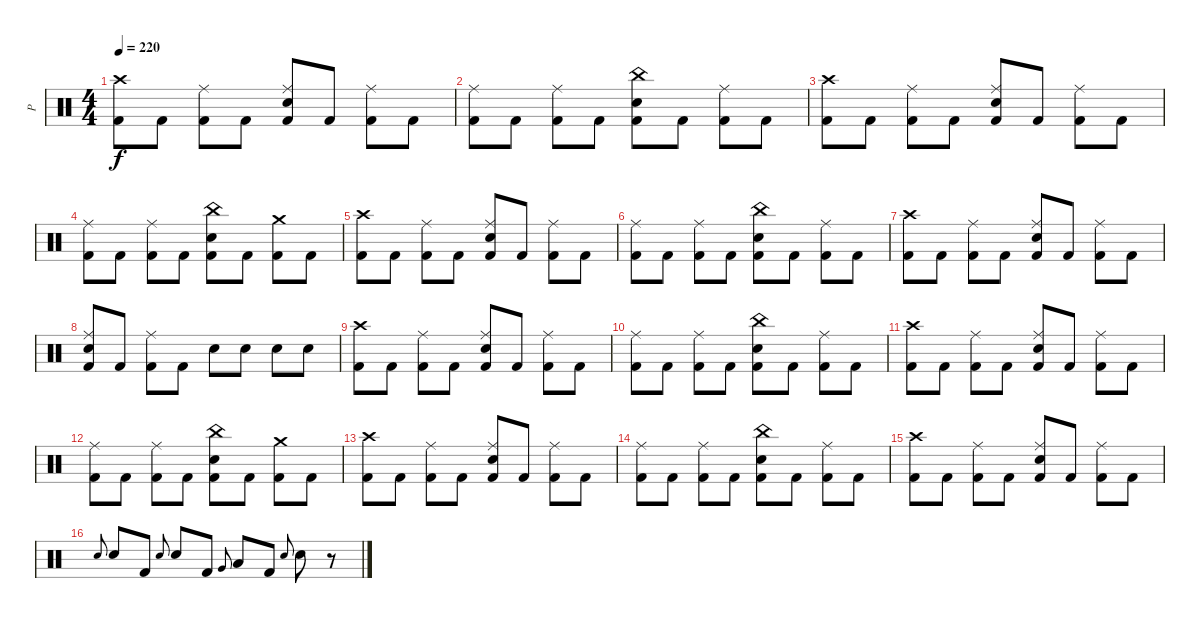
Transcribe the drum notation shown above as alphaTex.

\track ("P" "P") {instrument percussion}
\staff {score}
\articulation defaults
\ts (4 4)
\tempo 220
\clef neutral
\ks c
("Crash high (hit)" "Kick (hit) 2").8{dy f} "Kick (hit) 2".8 ("Ride (middle)" "Kick (hit) 2").8 "Kick (hit) 2".8 ("Ride (middle)" "Electric Snare (hit)" "Kick (hit) 2").8 "Kick (hit) 2".8 ("Ride (middle)" "Kick (hit) 2").8 "Kick (hit) 2".8 |
("Ride (middle)" "Kick (hit) 2").8 "Kick (hit) 2".8 ("Ride (middle)" "Kick (hit) 2").8 "Kick (hit) 2".8 ("China (hit)" "Electric Snare (hit)" "Kick (hit) 2").8 "Kick (hit) 2".8 ("Ride (middle)" "Kick (hit) 2").8 "Kick (hit) 2".8 |
("Crash high (hit)" "Kick (hit) 2").8 "Kick (hit) 2".8 ("Ride (middle)" "Kick (hit) 2").8 "Kick (hit) 2".8 ("Ride (middle)" "Electric Snare (hit)" "Kick (hit) 2").8 "Kick (hit) 2".8 ("Ride (middle)" "Kick (hit) 2").8 "Kick (hit) 2".8 |
("Ride (middle)" "Kick (hit) 2").8 "Kick (hit) 2".8 ("Ride (middle)" "Kick (hit) 2").8 "Kick (hit) 2".8 ("China (hit)" "Electric Snare (hit)" "Kick (hit) 2").8 "Kick (hit) 2".8 ("Crash medium (hit)" "Kick (hit) 2").8 "Kick (hit) 2".8 |
("Crash high (hit)" "Kick (hit) 2").8 "Kick (hit) 2".8 ("Ride (middle)" "Kick (hit) 2").8 "Kick (hit) 2".8 ("Ride (middle)" "Electric Snare (hit)" "Kick (hit) 2").8 "Kick (hit) 2".8 ("Ride (middle)" "Kick (hit) 2").8 "Kick (hit) 2".8 |
("Ride (middle)" "Kick (hit) 2").8 "Kick (hit) 2".8 ("Ride (middle)" "Kick (hit) 2").8 "Kick (hit) 2".8 ("China (hit)" "Electric Snare (hit)" "Kick (hit) 2").8 "Kick (hit) 2".8 ("Ride (middle)" "Kick (hit) 2").8 "Kick (hit) 2".8 |
("Crash high (hit)" "Kick (hit) 2").8 "Kick (hit) 2".8 ("Ride (middle)" "Kick (hit) 2").8 "Kick (hit) 2".8 ("Ride (middle)" "Electric Snare (hit)" "Kick (hit) 2").8 "Kick (hit) 2".8 ("Ride (middle)" "Kick (hit) 2").8 "Kick (hit) 2".8 |
("Ride (middle)" "Electric Snare (hit)" "Kick (hit) 2").8 "Kick (hit) 2".8 ("Ride (middle)" "Kick (hit) 2").8 "Kick (hit) 2".8 "Electric Snare (hit)".8 "Electric Snare (hit)".8 "Electric Snare (hit)".8 "Electric Snare (hit)".8 |
("Crash high (hit)" "Kick (hit) 2").8 "Kick (hit) 2".8 ("Ride (middle)" "Kick (hit) 2").8 "Kick (hit) 2".8 ("Ride (middle)" "Electric Snare (hit)" "Kick (hit) 2").8 "Kick (hit) 2".8 ("Ride (middle)" "Kick (hit) 2").8 "Kick (hit) 2".8 |
("Ride (middle)" "Kick (hit) 2").8 "Kick (hit) 2".8 ("Ride (middle)" "Kick (hit) 2").8 "Kick (hit) 2".8 ("China (hit)" "Electric Snare (hit)" "Kick (hit) 2").8 "Kick (hit) 2".8 ("Ride (middle)" "Kick (hit) 2").8 "Kick (hit) 2".8 |
("Crash high (hit)" "Kick (hit) 2").8 "Kick (hit) 2".8 ("Ride (middle)" "Kick (hit) 2").8 "Kick (hit) 2".8 ("Ride (middle)" "Electric Snare (hit)" "Kick (hit) 2").8 "Kick (hit) 2".8 ("Ride (middle)" "Kick (hit) 2").8 "Kick (hit) 2".8 |
("Ride (middle)" "Kick (hit) 2").8 "Kick (hit) 2".8 ("Ride (middle)" "Kick (hit) 2").8 "Kick (hit) 2".8 ("China (hit)" "Electric Snare (hit)" "Kick (hit) 2").8 "Kick (hit) 2".8 ("Crash medium (hit)" "Kick (hit) 2").8 "Kick (hit) 2".8 |
("Crash high (hit)" "Kick (hit) 2").8 "Kick (hit) 2".8 ("Ride (middle)" "Kick (hit) 2").8 "Kick (hit) 2".8 ("Ride (middle)" "Electric Snare (hit)" "Kick (hit) 2").8 "Kick (hit) 2".8 ("Ride (middle)" "Kick (hit) 2").8 "Kick (hit) 2".8 |
("Ride (middle)" "Kick (hit) 2").8 "Kick (hit) 2".8 ("Ride (middle)" "Kick (hit) 2").8 "Kick (hit) 2".8 ("China (hit)" "Electric Snare (hit)" "Kick (hit) 2").8 "Kick (hit) 2".8 ("Ride (middle)" "Kick (hit) 2").8 "Kick (hit) 2".8 |
("Crash high (hit)" "Kick (hit) 2").8 "Kick (hit) 2".8 ("Ride (middle)" "Kick (hit) 2").8 "Kick (hit) 2".8 ("Ride (middle)" "Electric Snare (hit)" "Kick (hit) 2").8 "Kick (hit) 2".8 ("Ride (middle)" "Kick (hit) 2").8 "Kick (hit) 2".8 |
"Electric Snare (hit)".8{gr onbeat} "Electric Snare (hit)".8 "Kick (hit) 2".8 "Electric Snare (hit)".8{gr onbeat} "Electric Snare (hit)".8 "Kick (hit) 2".8 "Very Low Tom (hit)".8{gr onbeat} "Low Tom (hit)".8 "Kick (hit) 2".8 "Electric Snare (hit)".8{gr onbeat} "Electric Snare (hit)".8 r.8
